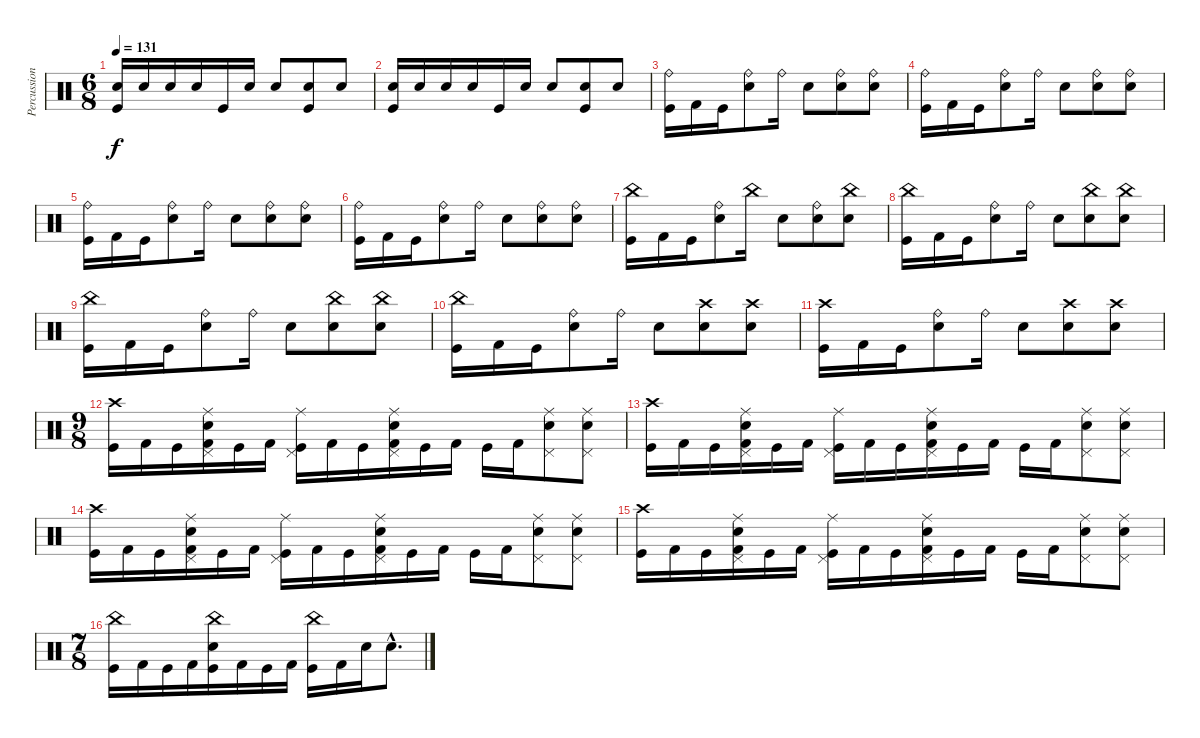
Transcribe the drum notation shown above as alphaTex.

\track ("Percussion" "Percussion") {instrument percussion}
\staff {score}
\articulation defaults
\ts (6 8)
\tempo 131
\clef neutral
\ks c
("Kick (hit)" "Snare (hit) 2").16{dy f} "Snare (hit) 2".16 "Snare (hit) 2".16 "Snare (hit) 2".16 "Kick (hit)".16 "Snare (hit) 2".16 "Snare (hit) 2".8 ("Snare (hit) 2" "Kick (hit)").8 "Snare (hit) 2".8 |
("Kick (hit)" "Snare (hit) 2").16 "Snare (hit) 2".16 "Snare (hit) 2".16 "Snare (hit) 2".16 "Kick (hit)".16 "Snare (hit) 2".16 "Snare (hit) 2".8 ("Snare (hit) 2" "Kick (hit)").8 "Snare (hit) 2".8 |
("Ride (bell)" "Kick (hit)").16 "Kick (hit) 2".16 "Kick (hit)".16 ("Ride (bell)" "Snare (hit) 2").8 "Ride (bell)".16 "Snare (hit) 2".8 ("Ride (bell)" "Snare (hit) 2").8 ("Ride (bell)" "Snare (hit) 2").8 |
("Ride (bell)" "Kick (hit)").16 "Kick (hit) 2".16 "Kick (hit)".16 ("Ride (bell)" "Snare (hit) 2").8 "Ride (bell)".16 "Snare (hit) 2".8 ("Ride (bell)" "Snare (hit) 2").8 ("Ride (bell)" "Snare (hit) 2").8 |
("Ride (bell)" "Kick (hit)").16 "Kick (hit) 2".16 "Kick (hit)".16 ("Ride (bell)" "Snare (hit) 2").8 "Ride (bell)".16 "Snare (hit) 2".8 ("Ride (bell)" "Snare (hit) 2").8 ("Ride (bell)" "Snare (hit) 2").8 |
("Ride (bell)" "Kick (hit)").16 "Kick (hit) 2".16 "Kick (hit)".16 ("Ride (bell)" "Snare (hit) 2").8 "Ride (bell)".16 "Snare (hit) 2".8 ("Ride (bell)" "Snare (hit) 2").8 ("Ride (bell)" "Snare (hit) 2").8 |
("China (hit)" "Kick (hit)").16 "Kick (hit) 2".16 "Kick (hit)".16 ("Ride (bell)" "Snare (hit) 2").8 "China (hit)".16 "Snare (hit) 2".8 ("Ride (bell)" "Snare (hit) 2").8 ("China (hit)" "Snare (hit) 2").8 |
("China (hit)" "Kick (hit)").16 "Kick (hit) 2".16 "Kick (hit)".16 ("Ride (bell)" "Snare (hit) 2").8 "Ride (bell)".16 "Snare (hit) 2".8 ("China (hit)" "Snare (hit) 2").8 ("China (hit)" "Snare (hit) 2").8 |
("China (hit)" "Kick (hit)").16 "Kick (hit) 2".16 "Kick (hit)".16 ("Ride (bell)" "Snare (hit) 2").8 "Ride (bell)".16 "Snare (hit) 2".8 ("China (hit)" "Snare (hit) 2").8 ("China (hit)" "Snare (hit) 2").8 |
("China (hit)" "Kick (hit)").16 "Kick (hit) 2".16 "Kick (hit)".16 ("Ride (bell)" "Snare (hit) 2").8 "Ride (bell)".16 "Snare (hit) 2".8 ("Crash high (hit)" "Snare (hit) 2").8 ("Crash high (hit)" "Snare (hit) 2").8 |
("Crash high (hit)" "Kick (hit)").16 "Kick (hit) 2".16 "Kick (hit)".16 ("Ride (bell)" "Snare (hit) 2").8 "Ride (bell)".16 "Snare (hit) 2".8 ("Crash high (hit)" "Snare (hit) 2").8 ("Crash high (hit)" "Snare (hit) 2").8 |
\ts (9 8)
("Crash high (hit)" "Kick (hit)").16 "Kick (hit) 2".16 "Kick (hit)".16 ("Snare (hit) 2" "Pedal Hi-Hat (hit)" "Ride (middle)" "Kick (hit) 2").16 "Kick (hit)".16 "Kick (hit) 2".16 ("Pedal Hi-Hat (hit)" "Ride (middle)" "Kick (hit)").16 "Kick (hit) 2".16 "Kick (hit)".16 ("Snare (hit) 2" "Pedal Hi-Hat (hit)" "Ride (middle)" "Kick (hit) 2").16 "Kick (hit)".16 "Kick (hit) 2".16 "Kick (hit)".16 "Kick (hit) 2".16 ("Snare (hit) 2" "Ride (middle)" "Pedal Hi-Hat (hit)").8 ("Snare (hit) 2" "Ride (middle)" "Pedal Hi-Hat (hit)").8 |
("Crash high (hit)" "Kick (hit)").16 "Kick (hit) 2".16 "Kick (hit)".16 ("Snare (hit) 2" "Pedal Hi-Hat (hit)" "Ride (middle)" "Kick (hit) 2").16 "Kick (hit)".16 "Kick (hit) 2".16 ("Pedal Hi-Hat (hit)" "Ride (middle)" "Kick (hit)").16 "Kick (hit) 2".16 "Kick (hit)".16 ("Snare (hit) 2" "Pedal Hi-Hat (hit)" "Ride (middle)" "Kick (hit) 2").16 "Kick (hit)".16 "Kick (hit) 2".16 "Kick (hit)".16 "Kick (hit) 2".16 ("Snare (hit) 2" "Ride (middle)" "Pedal Hi-Hat (hit)").8 ("Snare (hit) 2" "Ride (middle)" "Pedal Hi-Hat (hit)").8 |
("Crash high (hit)" "Kick (hit)").16 "Kick (hit) 2".16 "Kick (hit)".16 ("Snare (hit) 2" "Pedal Hi-Hat (hit)" "Ride (middle)" "Kick (hit) 2").16 "Kick (hit)".16 "Kick (hit) 2".16 ("Pedal Hi-Hat (hit)" "Ride (middle)" "Kick (hit)").16 "Kick (hit) 2".16 "Kick (hit)".16 ("Snare (hit) 2" "Pedal Hi-Hat (hit)" "Ride (middle)" "Kick (hit) 2").16 "Kick (hit)".16 "Kick (hit) 2".16 "Kick (hit)".16 "Kick (hit) 2".16 ("Snare (hit) 2" "Ride (middle)" "Pedal Hi-Hat (hit)").8 ("Snare (hit) 2" "Ride (middle)" "Pedal Hi-Hat (hit)").8 |
("Crash high (hit)" "Kick (hit)").16 "Kick (hit) 2".16 "Kick (hit)".16 ("Snare (hit) 2" "Pedal Hi-Hat (hit)" "Ride (middle)" "Kick (hit) 2").16 "Kick (hit)".16 "Kick (hit) 2".16 ("Pedal Hi-Hat (hit)" "Ride (middle)" "Kick (hit)").16 "Kick (hit) 2".16 "Kick (hit)".16 ("Snare (hit) 2" "Pedal Hi-Hat (hit)" "Ride (middle)" "Kick (hit) 2").16 "Kick (hit)".16 "Kick (hit) 2".16 "Kick (hit)".16 "Kick (hit) 2".16 ("Snare (hit) 2" "Ride (middle)" "Pedal Hi-Hat (hit)").8 ("Snare (hit) 2" "Ride (middle)" "Pedal Hi-Hat (hit)").8 |
\ts (7 8)
("China (hit)" "Kick (hit)").16 "Kick (hit) 2".16 "Kick (hit)".16 "Kick (hit) 2".16 ("China (hit)" "Kick (hit)" "Snare (hit) 2").16 "Kick (hit) 2".16 "Kick (hit)".16 "Kick (hit) 2".16 ("China (hit)" "Kick (hit)").16 "Kick (hit) 2".16 "Snare (hit) 2".16 "Snare (hit) 2"{hac}.8{d}
